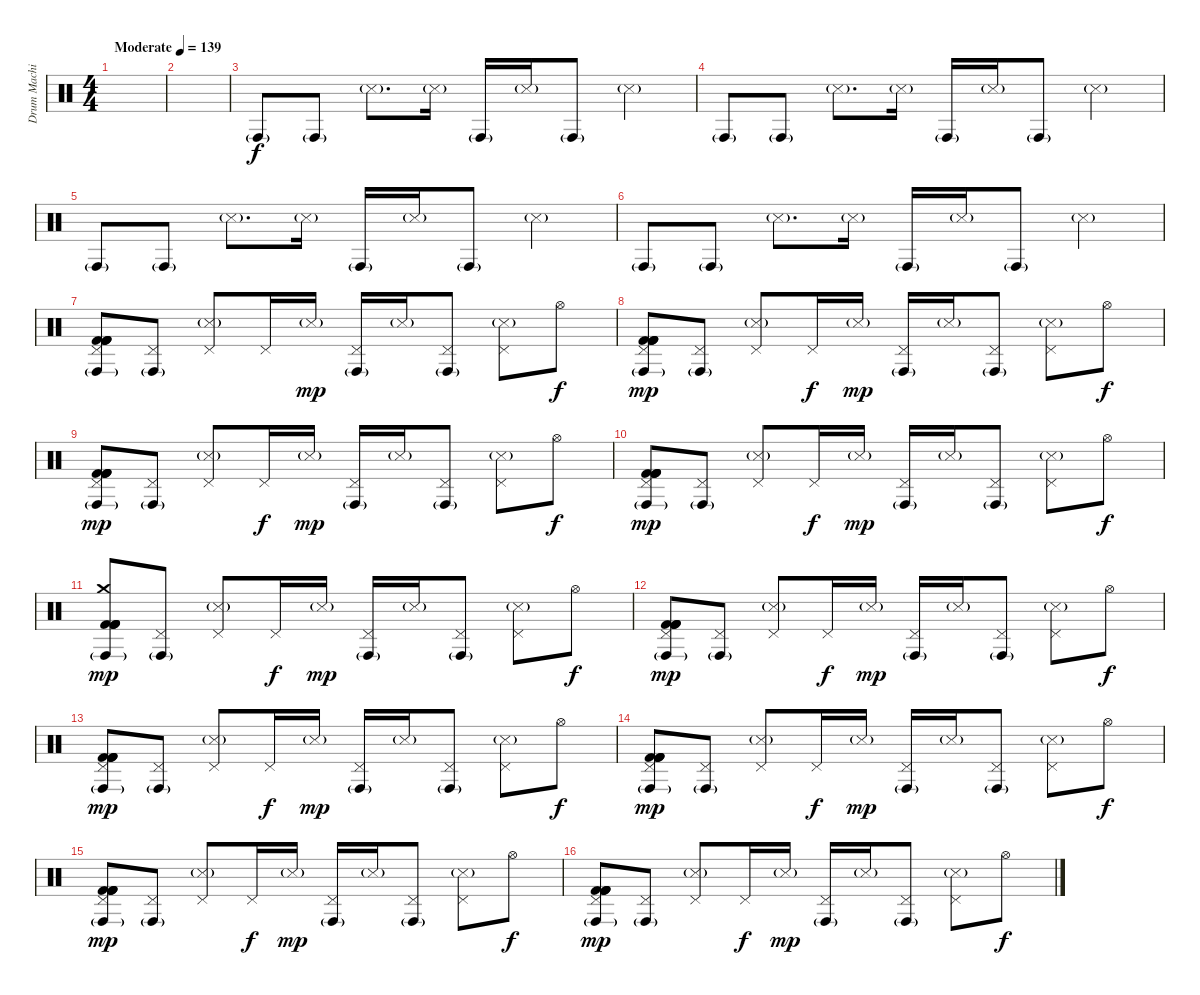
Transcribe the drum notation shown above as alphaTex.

\track ("Drum Machine" "Drum Machi") {instrument percussion}
\staff {score}
\articulation defaults
\ts (4 4)
\tempo (139 "Moderate")
\clef neutral
\ks c
|
|
"Conga high (hit)"{g}.8{volume 16} "Conga high (hit)"{g}.8 "Snare (side stick) 3"{g}.8{d} "Snare (side stick) 3"{g}.16 "Conga high (hit)"{g}.16 "Snare (side stick) 3"{g}.16 "Conga high (hit)"{g}.8 "Snare (side stick) 3"{g}.4 |
"Conga high (hit)"{g}.8 "Conga high (hit)"{g}.8 "Snare (side stick) 3"{g}.8{d} "Snare (side stick) 3"{g}.16 "Conga high (hit)"{g}.16 "Snare (side stick) 3"{g}.16 "Conga high (hit)"{g}.8 "Snare (side stick) 3"{g}.4 |
"Conga high (hit)"{g}.8 "Conga high (hit)"{g}.8 "Snare (side stick) 3"{g}.8{d} "Snare (side stick) 3"{g}.16 "Conga high (hit)"{g}.16 "Snare (side stick) 3"{g}.16 "Conga high (hit)"{g}.8 "Snare (side stick) 3"{g}.4 |
"Conga high (hit)"{g}.8 "Conga high (hit)"{g}.8 "Snare (side stick) 3"{g}.8{d} "Snare (side stick) 3"{g}.16 "Conga high (hit)"{g}.16 "Snare (side stick) 3"{g}.16 "Conga high (hit)"{g}.8 "Snare (side stick) 3"{g}.4 |
("Conga high (hit)"{g} "Pedal Hi-Hat (hit)" "Kick (hit) 2" "Kick (hit) 2" "Kick (hit) 2" "Kick (hit) 2").8 ("Conga high (hit)"{g} "Pedal Hi-Hat (hit)").8 ("Snare (side stick) 3"{g} "Pedal Hi-Hat (hit)").8 "Pedal Hi-Hat (hit)".16{dy f} "Snare (side stick) 3"{g}.16{dy mp} ("Conga high (hit)"{g} "Pedal Hi-Hat (hit)").16 "Snare (side stick) 3"{g}.16 ("Conga high (hit)"{g} "Pedal Hi-Hat (hit)").8 ("Snare (side stick) 3"{g} "Pedal Hi-Hat (hit)").8 "Hi-Hat (open)".8{dy f} |
("Conga high (hit)"{g} "Pedal Hi-Hat (hit)" "Kick (hit) 2" "Kick (hit) 2" "Kick (hit) 2" "Kick (hit) 2").8{dy mp} ("Conga high (hit)"{g} "Pedal Hi-Hat (hit)").8 ("Snare (side stick) 3"{g} "Pedal Hi-Hat (hit)").8 "Pedal Hi-Hat (hit)".16{dy f} "Snare (side stick) 3"{g}.16{dy mp} ("Conga high (hit)"{g} "Pedal Hi-Hat (hit)").16 "Snare (side stick) 3"{g}.16 ("Conga high (hit)"{g} "Pedal Hi-Hat (hit)").8 ("Snare (side stick) 3"{g} "Pedal Hi-Hat (hit)").8 "Hi-Hat (open)".8{dy f} |
("Conga high (hit)"{g} "Pedal Hi-Hat (hit)" "Kick (hit) 2" "Kick (hit) 2" "Kick (hit) 2" "Kick (hit) 2").8{dy mp} ("Conga high (hit)"{g} "Pedal Hi-Hat (hit)").8 ("Snare (side stick) 3"{g} "Pedal Hi-Hat (hit)").8 "Pedal Hi-Hat (hit)".16{dy f} "Snare (side stick) 3"{g}.16{dy mp} ("Conga high (hit)"{g} "Pedal Hi-Hat (hit)").16 "Snare (side stick) 3"{g}.16 ("Conga high (hit)"{g} "Pedal Hi-Hat (hit)").8 ("Snare (side stick) 3"{g} "Pedal Hi-Hat (hit)").8 "Hi-Hat (open)".8{dy f} |
("Conga high (hit)"{g} "Pedal Hi-Hat (hit)" "Kick (hit) 2" "Kick (hit) 2" "Kick (hit) 2" "Kick (hit) 2").8{dy mp} ("Conga high (hit)"{g} "Pedal Hi-Hat (hit)").8 ("Snare (side stick) 3"{g} "Pedal Hi-Hat (hit)").8 "Pedal Hi-Hat (hit)".16{dy f} "Snare (side stick) 3"{g}.16{dy mp} ("Conga high (hit)"{g} "Pedal Hi-Hat (hit)").16 "Snare (side stick) 3"{g}.16 ("Conga high (hit)"{g} "Pedal Hi-Hat (hit)").8 ("Snare (side stick) 3"{g} "Pedal Hi-Hat (hit)").8 "Hi-Hat (open)".8{dy f} |
("Conga high (hit)"{g} "Crash medium (hit)" "Kick (hit) 2" "Kick (hit) 2" "Kick (hit) 2" "Kick (hit) 2").8{dy mp} ("Conga high (hit)"{g} "Pedal Hi-Hat (hit)").8 ("Snare (side stick) 3"{g} "Pedal Hi-Hat (hit)").8 "Pedal Hi-Hat (hit)".16{dy f} "Snare (side stick) 3"{g}.16{dy mp} ("Conga high (hit)"{g} "Pedal Hi-Hat (hit)").16 "Snare (side stick) 3"{g}.16 ("Conga high (hit)"{g} "Pedal Hi-Hat (hit)").8 ("Snare (side stick) 3"{g} "Pedal Hi-Hat (hit)").8 "Hi-Hat (open)".8{dy f} |
("Conga high (hit)"{g} "Pedal Hi-Hat (hit)" "Kick (hit) 2" "Kick (hit) 2" "Kick (hit) 2" "Kick (hit) 2").8{dy mp} ("Conga high (hit)"{g} "Pedal Hi-Hat (hit)").8 ("Snare (side stick) 3"{g} "Pedal Hi-Hat (hit)").8 "Pedal Hi-Hat (hit)".16{dy f} "Snare (side stick) 3"{g}.16{dy mp} ("Conga high (hit)"{g} "Pedal Hi-Hat (hit)").16 "Snare (side stick) 3"{g}.16 ("Conga high (hit)"{g} "Pedal Hi-Hat (hit)").8 ("Snare (side stick) 3"{g} "Pedal Hi-Hat (hit)").8 "Hi-Hat (open)".8{dy f} |
("Conga high (hit)"{g} "Pedal Hi-Hat (hit)" "Kick (hit) 2" "Kick (hit) 2" "Kick (hit) 2" "Kick (hit) 2").8{dy mp} ("Conga high (hit)"{g} "Pedal Hi-Hat (hit)").8 ("Snare (side stick) 3"{g} "Pedal Hi-Hat (hit)").8 "Pedal Hi-Hat (hit)".16{dy f} "Snare (side stick) 3"{g}.16{dy mp} ("Conga high (hit)"{g} "Pedal Hi-Hat (hit)").16 "Snare (side stick) 3"{g}.16 ("Conga high (hit)"{g} "Pedal Hi-Hat (hit)").8 ("Snare (side stick) 3"{g} "Pedal Hi-Hat (hit)").8 "Hi-Hat (open)".8{dy f} |
("Conga high (hit)"{g} "Pedal Hi-Hat (hit)" "Kick (hit) 2" "Kick (hit) 2" "Kick (hit) 2" "Kick (hit) 2").8{dy mp} ("Conga high (hit)"{g} "Pedal Hi-Hat (hit)").8 ("Snare (side stick) 3"{g} "Pedal Hi-Hat (hit)").8 "Pedal Hi-Hat (hit)".16{dy f} "Snare (side stick) 3"{g}.16{dy mp} ("Conga high (hit)"{g} "Pedal Hi-Hat (hit)").16 "Snare (side stick) 3"{g}.16 ("Conga high (hit)"{g} "Pedal Hi-Hat (hit)").8 ("Snare (side stick) 3"{g} "Pedal Hi-Hat (hit)").8 "Hi-Hat (open)".8{dy f} |
("Conga high (hit)"{g} "Pedal Hi-Hat (hit)" "Kick (hit) 2" "Kick (hit) 2" "Kick (hit) 2" "Kick (hit) 2").8{dy mp} ("Conga high (hit)"{g} "Pedal Hi-Hat (hit)").8 ("Snare (side stick) 3"{g} "Pedal Hi-Hat (hit)").8 "Pedal Hi-Hat (hit)".16{dy f} "Snare (side stick) 3"{g}.16{dy mp} ("Conga high (hit)"{g} "Pedal Hi-Hat (hit)").16 "Snare (side stick) 3"{g}.16 ("Conga high (hit)"{g} "Pedal Hi-Hat (hit)").8 ("Snare (side stick) 3"{g} "Pedal Hi-Hat (hit)").8 "Hi-Hat (open)".8{dy f} |
("Conga high (hit)"{g} "Pedal Hi-Hat (hit)" "Kick (hit) 2" "Kick (hit) 2" "Kick (hit) 2" "Kick (hit) 2").8{dy mp} ("Conga high (hit)"{g} "Pedal Hi-Hat (hit)").8 ("Snare (side stick) 3"{g} "Pedal Hi-Hat (hit)").8 "Pedal Hi-Hat (hit)".16{dy f} "Snare (side stick) 3"{g}.16{dy mp} ("Conga high (hit)"{g} "Pedal Hi-Hat (hit)").16 "Snare (side stick) 3"{g}.16 ("Conga high (hit)"{g} "Pedal Hi-Hat (hit)").8 ("Snare (side stick) 3"{g} "Pedal Hi-Hat (hit)").8 "Hi-Hat (open)".8{dy f}
